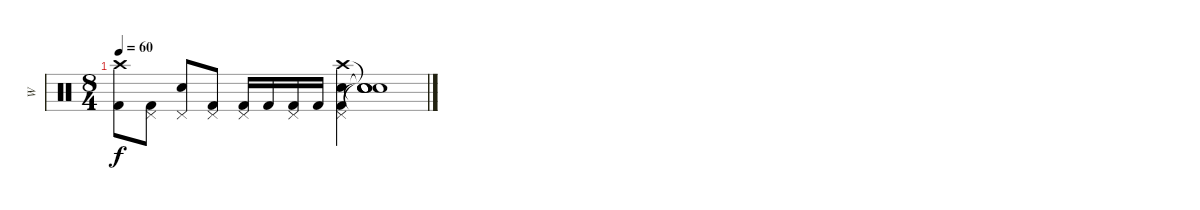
\track ("W" "W") {instrument percussion}
\staff {score}
\articulation defaults
\ts (8 4)
\tempo 60
\clef neutral
\ks c
("Crash high (hit)" "Kick (hit) 2").8{dy f} ("Pedal Hi-Hat (hit)" "Kick (hit) 2").8 ("Pedal Hi-Hat (hit)" "Electric Snare (hit)").8 ("Pedal Hi-Hat (hit)" "Kick (hit) 2").8 ("Pedal Hi-Hat (hit)" "Kick (hit) 2").16 "Kick (hit) 2".16 ("Pedal Hi-Hat (hit)" "Kick (hit) 2").16 "Kick (hit) 2".16 ("Crash high (hit)" "Pedal Hi-Hat (hit)" "Electric Snare (hit)" "Kick (hit) 2").4 ("Snare (hit)"{t} "Snare (hit)"{t} "Snare (hit)"{t} "Snare (hit)"{t}).1
